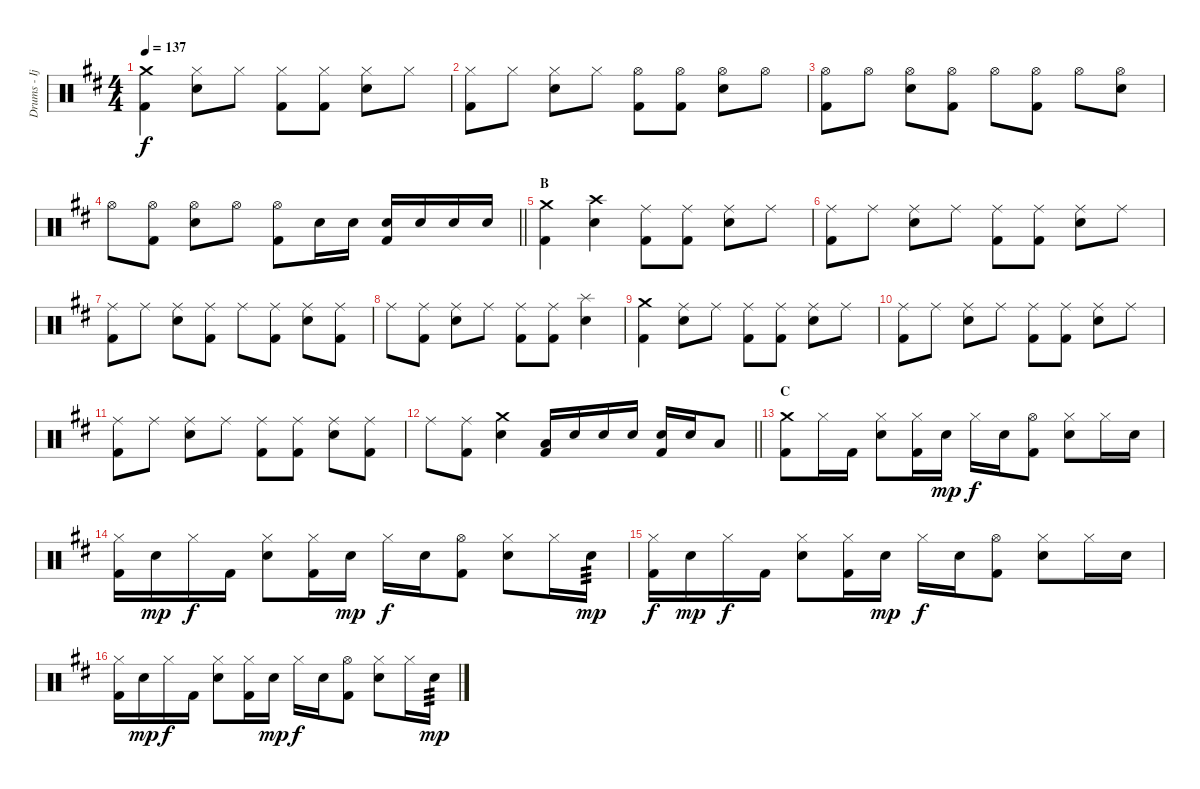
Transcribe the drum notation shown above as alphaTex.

\track ("Drums - Ijichi" "Drums - Ij") {instrument percussion}
\staff {score}
\articulation defaults
\ts (4 4)
\tempo 137
\clef neutral
\ks d
("Crash medium (hit)" "Kick (hit) 2").4{dy f} ("Hi-Hat (closed)" "Electric Snare (hit)").8 "Hi-Hat (closed)".8 ("Hi-Hat (closed)" "Kick (hit) 2").8 ("Hi-Hat (closed)" "Kick (hit) 2").8 ("Hi-Hat (closed)" "Electric Snare (hit)").8 "Hi-Hat (closed)".8 |
("Hi-Hat (closed)" "Kick (hit) 2").8 "Hi-Hat (closed)".8 ("Hi-Hat (closed)" "Electric Snare (hit)").8 "Hi-Hat (closed)".8 ("Hi-Hat (open)" "Kick (hit) 2").8 ("Hi-Hat (open)" "Kick (hit) 2").8 ("Hi-Hat (open)" "Electric Snare (hit)").8 "Hi-Hat (open)".8 |
("Hi-Hat (open)" "Kick (hit) 2").8 "Hi-Hat (open)".8 ("Hi-Hat (open)" "Electric Snare (hit)").8 ("Hi-Hat (open)" "Kick (hit) 2").8 "Hi-Hat (open)".8 ("Hi-Hat (open)" "Kick (hit) 2").8 "Hi-Hat (open)".8 ("Hi-Hat (open)" "Electric Snare (hit)").8 |
\barLineRight lightlight "Hi-Hat (open)".8
("Hi-Hat (open)" "Kick (hit) 2").8 ("Hi-Hat (open)" "Electric Snare (hit)").8 "Hi-Hat (open)".8 ("Hi-Hat (open)" "Kick (hit) 2").8 "Electric Snare (hit)".16 "Electric Snare (hit)".16 ("Electric Snare (hit)" "Kick (hit) 2").16 "Electric Snare (hit)".16 "Electric Snare (hit)".16 "Electric Snare (hit)".16 |
\section ("" "B")
("Crash medium (hit)" "Kick (hit) 2").4 ("Crash high (hit)" "Electric Snare (hit)").4 ("Ride (middle)" "Kick (hit) 2").8 ("Ride (middle)" "Kick (hit) 2").8 ("Ride (middle)" "Electric Snare (hit)").8 "Ride (middle)".8 |
("Ride (middle)" "Kick (hit) 2").8 "Ride (middle)".8 ("Ride (middle)" "Electric Snare (hit)").8 "Ride (middle)".8 ("Ride (middle)" "Kick (hit) 2").8 ("Ride (middle)" "Kick (hit) 2").8 ("Ride (middle)" "Electric Snare (hit)").8 "Ride (middle)".8 |
("Ride (middle)" "Kick (hit) 2").8 "Ride (middle)".8 ("Ride (middle)" "Electric Snare (hit)").8 ("Ride (middle)" "Kick (hit) 2").8 "Ride (middle)".8 ("Ride (middle)" "Kick (hit) 2").8 ("Ride (middle)" "Electric Snare (hit)").8 ("Ride (middle)" "Kick (hit) 2").8 |
"Ride (middle)".8 ("Ride (middle)" "Kick (hit) 2").8 ("Ride (middle)" "Electric Snare (hit)").8 "Ride (middle)".8 ("Ride (middle)" "Kick (hit) 2").8 ("Ride (middle)" "Kick (hit) 2").8 ("Splash (hit)" "Electric Snare (hit)").4 |
("Crash medium (hit)" "Kick (hit) 2").4 ("Ride (middle)" "Electric Snare (hit)").8 "Ride (middle)".8 ("Ride (middle)" "Kick (hit) 2").8 ("Ride (middle)" "Kick (hit) 2").8 ("Ride (middle)" "Electric Snare (hit)").8 "Ride (middle)".8 |
("Ride (middle)" "Kick (hit) 2").8 "Ride (middle)".8 ("Ride (middle)" "Electric Snare (hit)").8 "Ride (middle)".8 ("Ride (middle)" "Kick (hit) 2").8 ("Ride (middle)" "Kick (hit) 2").8 ("Ride (middle)" "Electric Snare (hit)").8 "Ride (middle)".8 |
("Ride (middle)" "Kick (hit) 2").8 "Ride (middle)".8 ("Ride (middle)" "Electric Snare (hit)").8 "Ride (middle)".8 ("Ride (middle)" "Kick (hit) 2").8 ("Ride (middle)" "Kick (hit) 2").8 ("Ride (middle)" "Electric Snare (hit)").8 ("Ride (middle)" "Kick (hit) 2").8 |
\barLineRight lightlight "Ride (middle)".8
("Ride (middle)" "Kick (hit) 2").8 ("Crash medium (hit)" "Electric Snare (hit)").4 ("Low Tom (hit)" "Kick (hit) 2").16 "Electric Snare (hit)".16 "Electric Snare (hit)".16 "Electric Snare (hit)".16 ("Electric Snare (hit)" "Kick (hit) 2").16 "Electric Snare (hit)".16 "Low Tom (hit)".8 |
\section ("" "C")
("Crash medium (hit)" "Kick (hit) 2").8 "Hi-Hat (closed)".16 "Kick (hit) 2".16 ("Hi-Hat (closed)" "Electric Snare (hit)").8 ("Hi-Hat (closed)" "Kick (hit) 2").16 "Electric Snare (hit)".16{dy mp} "Hi-Hat (closed)".16{dy f} "Electric Snare (hit)".16 ("Hi-Hat (open)" "Kick (hit) 2").8 ("Hi-Hat (closed)" "Electric Snare (hit)").8 "Hi-Hat (closed)".16 "Electric Snare (hit)".16 |
("Hi-Hat (closed)" "Kick (hit) 2").16 "Electric Snare (hit)".16{dy mp} "Hi-Hat (closed)".16{dy f} "Kick (hit) 2".16 ("Hi-Hat (closed)" "Electric Snare (hit)").8 ("Hi-Hat (closed)" "Kick (hit) 2").16 "Electric Snare (hit)".16{dy mp} "Hi-Hat (closed)".16{dy f} "Electric Snare (hit)".16 ("Hi-Hat (open)" "Kick (hit) 2").8 ("Hi-Hat (closed)" "Electric Snare (hit)").8 "Hi-Hat (closed)".16 "Electric Snare (hit)".16{tp 3 dy mp} |
("Hi-Hat (closed)" "Kick (hit) 2").16{dy f} "Electric Snare (hit)".16{dy mp} "Hi-Hat (closed)".16{dy f} "Kick (hit) 2".16 ("Hi-Hat (closed)" "Electric Snare (hit)").8 ("Hi-Hat (closed)" "Kick (hit) 2").16 "Electric Snare (hit)".16{dy mp} "Hi-Hat (closed)".16{dy f} "Electric Snare (hit)".16 ("Hi-Hat (open)" "Kick (hit) 2").8 ("Hi-Hat (closed)" "Electric Snare (hit)").8 "Hi-Hat (closed)".16 "Electric Snare (hit)".16 |
("Hi-Hat (closed)" "Kick (hit) 2").16 "Electric Snare (hit)".16{dy mp} "Hi-Hat (closed)".16{dy f} "Kick (hit) 2".16 ("Hi-Hat (closed)" "Electric Snare (hit)").8 ("Hi-Hat (closed)" "Kick (hit) 2").16 "Electric Snare (hit)".16{dy mp} "Hi-Hat (closed)".16{dy f} "Electric Snare (hit)".16 ("Hi-Hat (open)" "Kick (hit) 2").8 ("Hi-Hat (closed)" "Electric Snare (hit)").8 "Hi-Hat (closed)".16 "Electric Snare (hit)".16{tp 3 dy mp}
